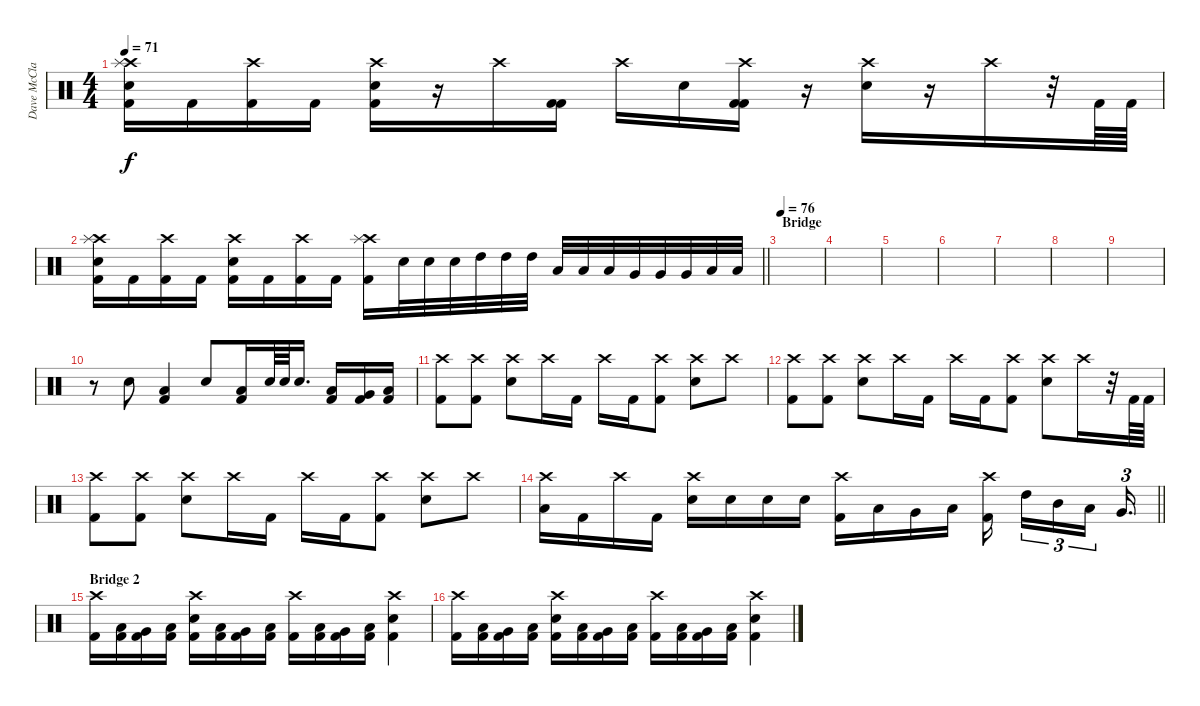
\track ("Dave McClain - Drums" "Dave McCla") {instrument percussion}
\staff {score}
\articulation defaults
\ts (4 4)
\tempo 71
\clef neutral
\ks c
("Crash high (hit)" "Splash (hit)" "Electric Snare (hit)" "Kick (hit) 2").16{dy f} "Kick (hit) 2".16 ("Crash high (hit)" "Kick (hit) 2").16 "Kick (hit) 2".16 ("Crash high (hit)" "Electric Snare (hit)" "Kick (hit) 2").16 r.16 "Crash high (hit)".16 ("Kick (hit) 2" "Kick (hit) 2").16 "Crash high (hit)".16 "Electric Snare (hit)".16 ("Crash high (hit)" "Kick (hit) 2" "Kick (hit) 2").16 r.16 ("Crash high (hit)" "Electric Snare (hit)").16 r.16 "Crash high (hit)".16 r.32 "Kick (hit) 2".64 "Kick (hit) 2".64 |
\barLineRight lightlight
("Crash high (hit)" "Splash (hit)" "Electric Snare (hit)" "Kick (hit) 2").16 "Kick (hit) 2".16 ("Crash high (hit)" "Kick (hit) 2").16 "Kick (hit) 2".16 ("Crash high (hit)" "Electric Snare (hit)" "Kick (hit) 2").16 "Kick (hit) 2".16 ("Crash high (hit)" "Kick (hit) 2").16 "Kick (hit) 2".16 ("Crash high (hit)" "Splash (hit)" "Kick (hit) 2").16 "Electric Snare (hit)".32 "Electric Snare (hit)".32 "Electric Snare (hit)".32 "High Tom (hit)".32 "High Tom (hit)".32 "High Tom (hit)".32 "Low Tom (hit)".32 "Low Tom (hit)".32 "Low Tom (hit)".32 "Very Low Tom (hit)".32 "Very Low Tom (hit)".32 "Very Low Tom (hit)".32 "Low Floor Tom (hit)".32 "Low Floor Tom (hit)".32 |
\section ("" "Bridge")
\tempo 76
|
|
|
|
|
|
|
r.8 "Electric Snare (hit)".8 ("Low Floor Tom (hit)" "Kick (hit) 2").4 "Electric Snare (hit)".8 ("Low Floor Tom (hit)" "Kick (hit) 2").16 "Electric Snare (hit)".64 "Electric Snare (hit)".64 "Electric Snare (hit)".16{d} ("Low Tom (hit)" "Kick (hit) 2").16 ("Very Low Tom (hit)" "Kick (hit) 2").16 ("Low Floor Tom (hit)" "Kick (hit) 2").16 |
("Crash high (hit)" "Kick (hit) 2").8 ("Crash high (hit)" "Kick (hit) 2").8 ("Crash high (hit)" "Electric Snare (hit)").8 "Crash high (hit)".16 "Kick (hit) 2".16 "Crash high (hit)".16 "Kick (hit) 2".16 ("Crash high (hit)" "Kick (hit) 2").8 ("Crash high (hit)" "Electric Snare (hit)").8 "Crash high (hit)".8 |
("Crash high (hit)" "Kick (hit) 2").8 ("Crash high (hit)" "Kick (hit) 2").8 ("Crash high (hit)" "Electric Snare (hit)").8 "Crash high (hit)".16 "Kick (hit) 2".16 "Crash high (hit)".16 "Kick (hit) 2".16 ("Crash high (hit)" "Kick (hit) 2").8 ("Crash high (hit)" "Electric Snare (hit)").8 "Crash high (hit)".16 r.32 "Kick (hit) 2".64 "Kick (hit) 2".64 |
("Crash high (hit)" "Kick (hit) 2").8 ("Crash high (hit)" "Kick (hit) 2").8 ("Crash high (hit)" "Electric Snare (hit)").8 "Crash high (hit)".16 "Kick (hit) 2".16 "Crash high (hit)".16 "Kick (hit) 2".16 ("Crash high (hit)" "Kick (hit) 2").8 ("Crash high (hit)" "Electric Snare (hit)").8 "Crash high (hit)".8 |
\barLineRight lightlight
("Crash high (hit)" "Low Floor Tom (hit)").16 "Kick (hit) 2".16 "Crash high (hit)".16 "Kick (hit) 2".16 ("Crash high (hit)" "Electric Snare (hit)").16 "Electric Snare (hit)".16 "Electric Snare (hit)".16 "Electric Snare (hit)".16 ("Crash high (hit)" "Kick (hit) 2").16 "Low Tom (hit)".16 "Very Low Tom (hit)".16 "Low Floor Tom (hit)".16 ("Crash high (hit)" "Kick (hit) 2").16{beam splitsecondary} "High Tom (hit)".16{tu (3 2)} "Mid Tom (hit)".16{tu (3 2)} "Low Tom (hit)".16{tu (3 2) beam splitsecondary} "Very Low Tom (hit)".16{d tu (3 2)} |
\section ("" "Bridge 2")
("Crash high (hit)" "Kick (hit) 2").16 ("Low Tom (hit)" "Kick (hit) 2").16 ("Very Low Tom (hit)" "Kick (hit) 2").16 ("Low Floor Tom (hit)" "Kick (hit) 2").16 ("Crash high (hit)" "Electric Snare (hit)" "Kick (hit) 2").16 ("Low Tom (hit)" "Kick (hit) 2").16 ("Very Low Tom (hit)" "Kick (hit) 2").16 ("Low Floor Tom (hit)" "Kick (hit) 2").16 ("Crash high (hit)" "Kick (hit) 2").16 ("Low Tom (hit)" "Kick (hit) 2").16 ("Very Low Tom (hit)" "Kick (hit) 2").16 ("Low Floor Tom (hit)" "Kick (hit) 2").16 ("Crash high (hit)" "Electric Snare (hit)" "Kick (hit) 2").4 |
("Crash high (hit)" "Kick (hit) 2").16 ("Low Tom (hit)" "Kick (hit) 2").16 ("Very Low Tom (hit)" "Kick (hit) 2").16 ("Low Floor Tom (hit)" "Kick (hit) 2").16 ("Crash high (hit)" "Electric Snare (hit)" "Kick (hit) 2").16 ("Low Tom (hit)" "Kick (hit) 2").16 ("Very Low Tom (hit)" "Kick (hit) 2").16 ("Low Floor Tom (hit)" "Kick (hit) 2").16 ("Crash high (hit)" "Kick (hit) 2").16 ("Low Tom (hit)" "Kick (hit) 2").16 ("Very Low Tom (hit)" "Kick (hit) 2").16 ("Low Floor Tom (hit)" "Kick (hit) 2").16 ("Crash high (hit)" "Electric Snare (hit)" "Kick (hit) 2").4
